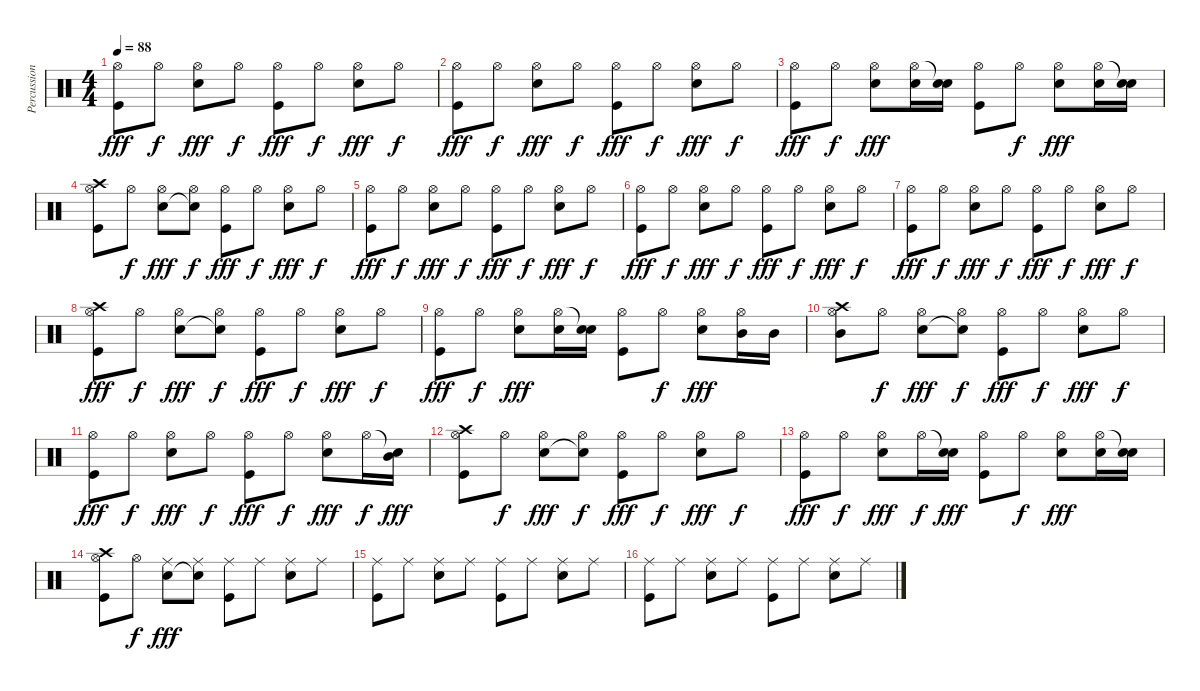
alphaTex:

\track ("Percussions" "Percussion") {instrument percussion}
\staff {score}
\articulation defaults
\ts (4 4)
\tempo 88
\clef neutral
\ks c
("Hi-Hat (open)" "Kick (hit)").8{dy fff} "Hi-Hat (open)".8{dy f} ("Hi-Hat (open)" "Snare (hit) 2").8{dy fff} "Hi-Hat (open)".8{dy f} ("Hi-Hat (open)" "Kick (hit)").8{dy fff} "Hi-Hat (open)".8{dy f} ("Hi-Hat (open)" "Snare (hit) 2").8{dy fff} "Hi-Hat (open)".8{dy f} |
("Hi-Hat (open)" "Kick (hit)").8{dy fff} "Hi-Hat (open)".8{dy f} ("Hi-Hat (open)" "Snare (hit) 2").8{dy fff} "Hi-Hat (open)".8{dy f} ("Hi-Hat (open)" "Kick (hit)").8{dy fff} "Hi-Hat (open)".8{dy f} ("Hi-Hat (open)" "Snare (hit) 2").8{dy fff} "Hi-Hat (open)".8{dy f} |
("Hi-Hat (open)" "Kick (hit)").8{dy fff} "Hi-Hat (open)".8{dy f} ("Hi-Hat (open)" "Snare (hit) 2").8{dy fff} ("Hi-Hat (open)" "Snare (hit) 2").16 ("Snare (hit)"{t} "Snare (hit) 2").16 ("Hi-Hat (open)" "Kick (hit)").8 "Hi-Hat (open)".8{dy f} ("Hi-Hat (open)" "Snare (hit) 2").8{dy fff} ("Hi-Hat (open)" "Snare (hit) 2").16 ("Snare (hit)"{t} "Snare (hit) 2").16 |
("Hi-Hat (open)" "Kick (hit)" "Crash high (hit)").8 "Hi-Hat (open)".8{dy f} ("Hi-Hat (open)" "Snare (hit) 2").8{dy fff} ("Hi-Hat (open)" "Snare (hit)"{t}).8{dy f} ("Hi-Hat (open)" "Kick (hit)").8{dy fff} "Hi-Hat (open)".8{dy f} ("Hi-Hat (open)" "Snare (hit) 2").8{dy fff} "Hi-Hat (open)".8{dy f} |
("Hi-Hat (open)" "Kick (hit)").8{dy fff} "Hi-Hat (open)".8{dy f} ("Hi-Hat (open)" "Snare (hit) 2").8{dy fff} "Hi-Hat (open)".8{dy f} ("Hi-Hat (open)" "Kick (hit)").8{dy fff} "Hi-Hat (open)".8{dy f} ("Hi-Hat (open)" "Snare (hit) 2").8{dy fff} "Hi-Hat (open)".8{dy f} |
("Hi-Hat (open)" "Kick (hit)").8{dy fff} "Hi-Hat (open)".8{dy f} ("Hi-Hat (open)" "Snare (hit) 2").8{dy fff} "Hi-Hat (open)".8{dy f} ("Hi-Hat (open)" "Kick (hit)").8{dy fff} "Hi-Hat (open)".8{dy f} ("Hi-Hat (open)" "Snare (hit) 2").8{dy fff} "Hi-Hat (open)".8{dy f} |
("Hi-Hat (open)" "Kick (hit)").8{dy fff} "Hi-Hat (open)".8{dy f} ("Hi-Hat (open)" "Snare (hit) 2").8{dy fff} "Hi-Hat (open)".8{dy f} ("Hi-Hat (open)" "Kick (hit)").8{dy fff} "Hi-Hat (open)".8{dy f} ("Hi-Hat (open)" "Snare (hit) 2").8{dy fff} "Hi-Hat (open)".8{dy f} |
("Hi-Hat (open)" "Kick (hit)" "Crash high (hit)").8{dy fff} "Hi-Hat (open)".8{dy f} ("Hi-Hat (open)" "Snare (hit) 2").8{dy fff} ("Hi-Hat (open)" "Snare (hit)"{t}).8{dy f} ("Hi-Hat (open)" "Kick (hit)").8{dy fff} "Hi-Hat (open)".8{dy f} ("Hi-Hat (open)" "Snare (hit) 2").8{dy fff} "Hi-Hat (open)".8{dy f} |
("Hi-Hat (open)" "Kick (hit)").8{dy fff} "Hi-Hat (open)".8{dy f} ("Hi-Hat (open)" "Snare (hit) 2").8{dy fff} ("Hi-Hat (open)" "Snare (hit) 2").16 ("Snare (hit)"{t} "Snare (hit) 2").16 ("Hi-Hat (open)" "Kick (hit)").8 "Hi-Hat (open)".8{dy f} ("Hi-Hat (open)" "Snare (hit) 2").8{dy fff} ("Hi-Hat (open)" "Mid Tom (hit)").16 "Mid Tom (hit)".16 |
("Hi-Hat (open)" "Mid Tom (hit)" "Crash high (hit)").8 "Hi-Hat (open)".8{dy f} ("Hi-Hat (open)" "Snare (hit) 2").8{dy fff} ("Hi-Hat (open)" "Snare (hit)"{t}).8{dy f} ("Hi-Hat (open)" "Kick (hit)").8{dy fff} "Hi-Hat (open)".8{dy f} ("Hi-Hat (open)" "Snare (hit) 2").8{dy fff} "Hi-Hat (open)".8{dy f} |
("Hi-Hat (open)" "Kick (hit)").8{dy fff} "Hi-Hat (open)".8{dy f} ("Hi-Hat (open)" "Snare (hit) 2").8{dy fff} "Hi-Hat (open)".8{dy f} ("Hi-Hat (open)" "Kick (hit)").8{dy fff} "Hi-Hat (open)".8{dy f} ("Hi-Hat (open)" "Snare (hit) 2").8{dy fff} "Hi-Hat (open)".16{dy f} ("Snare (hit)"{t} "Mid Tom (hit)").16{dy fff} |
("Hi-Hat (open)" "Kick (hit)" "Crash high (hit)").8 "Hi-Hat (open)".8{dy f} ("Hi-Hat (open)" "Snare (hit) 2").8{dy fff} ("Hi-Hat (open)" "Snare (hit)"{t}).8{dy f} ("Hi-Hat (open)" "Kick (hit)").8{dy fff} "Hi-Hat (open)".8{dy f} ("Hi-Hat (open)" "Snare (hit) 2").8{dy fff} "Hi-Hat (open)".8{dy f} |
("Hi-Hat (open)" "Kick (hit)").8{dy fff} "Hi-Hat (open)".8{dy f} ("Hi-Hat (open)" "Snare (hit) 2").8{dy fff} "Hi-Hat (open)".16{dy f} ("Snare (hit)"{t} "Snare (hit) 2").16{dy fff} ("Hi-Hat (open)" "Kick (hit)").8 "Hi-Hat (open)".8{dy f} ("Hi-Hat (open)" "Snare (hit) 2").8{dy fff} ("Hi-Hat (open)" "Snare (hit) 2").16 ("Snare (hit)"{t} "Snare (hit) 2").16 |
("Hi-Hat (open)" "Kick (hit)" "Crash high (hit)").8 "Hi-Hat (open)".8{dy f} ("Ride (middle)" "Snare (hit) 2").8{dy fff} ("Ride (middle)" "Snare (hit)"{t}).8 ("Ride (middle)" "Kick (hit)").8 "Ride (middle)".8 ("Ride (middle)" "Snare (hit) 2").8 "Ride (middle)".8 |
("Ride (middle)" "Kick (hit)").8 "Ride (middle)".8 ("Ride (middle)" "Snare (hit) 2").8 "Ride (middle)".8 ("Ride (middle)" "Kick (hit)").8 "Ride (middle)".8 ("Ride (middle)" "Snare (hit) 2").8 "Ride (middle)".8 |
("Ride (middle)" "Kick (hit)").8 "Ride (middle)".8 ("Ride (middle)" "Snare (hit) 2").8 "Ride (middle)".8 ("Ride (middle)" "Kick (hit)").8 "Ride (middle)".8 ("Ride (middle)" "Snare (hit) 2").8 "Ride (middle)".8
